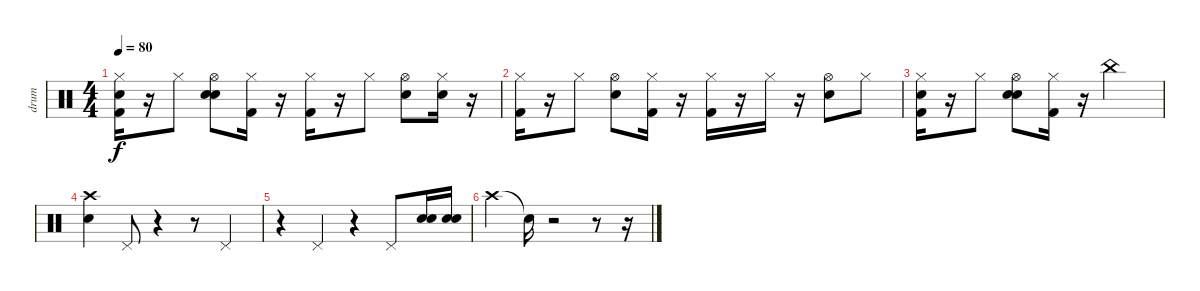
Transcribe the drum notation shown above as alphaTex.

\track ("drum" "drum") {instrument percussion}
\staff {score}
\articulation defaults
\ts (4 4)
\tempo 80
\clef neutral
\ks c
("Snare (hit)" "Hi-Hat (closed)" "Kick (hit) 2").16{dy f} r.16 "Hi-Hat (closed)".8 ("Snare (hit)" "Snare (hit) 2" "Hi-Hat (open)").8 ("Kick (hit) 2" "Hi-Hat (closed)").16 r.16 ("Kick (hit) 2" "Hi-Hat (closed)").16 r.16 "Hi-Hat (closed)".8 ("Snare (hit) 2" "Hi-Hat (open)").8 ("Snare (hit)" "Hi-Hat (closed)").16 r.16 |
("Hi-Hat (closed)" "Kick (hit) 2").16 r.16 "Hi-Hat (closed)".8 ("Snare (hit) 2" "Hi-Hat (open)").8 ("Hi-Hat (closed)" "Kick (hit) 2").16 r.16 ("Hi-Hat (closed)" "Kick (hit) 2").16 r.16 "Hi-Hat (closed)".16 r.16 ("Hi-Hat (open)" "Snare (hit) 2").8 "Hi-Hat (closed)".8 |
("Snare (hit)" "Hi-Hat (closed)" "Kick (hit) 2").16 r.16 "Hi-Hat (closed)".8 ("Snare (hit)" "Snare (hit) 2" "Hi-Hat (open)").8 ("Hi-Hat (closed)" "Kick (hit) 2").16 r.16 "China (hit)".2 |
("Snare (hit)" "Crash high (hit)").4 "Pedal Hi-Hat (hit)".8 r.4 r.8 "Pedal Hi-Hat (hit)".4 |
r.4 "Pedal Hi-Hat (hit)".4 r.4 "Pedal Hi-Hat (hit)".8 ("Snare (hit)" "Snare (hit) 2").16 ("Snare (hit)" "Snare (hit) 2").16 |
"Crash high (hit)".4 "Snare (hit)"{t}.16 r.2 r.8 r.16
